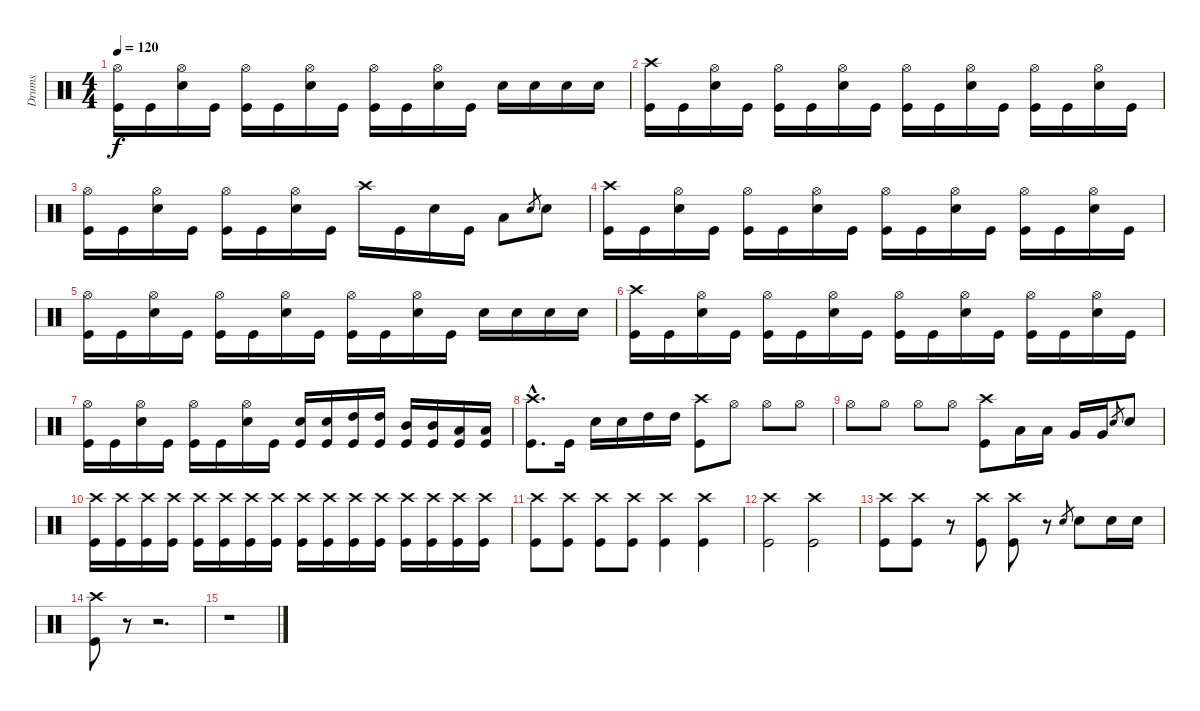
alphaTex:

\track ("Drums" "Drums") {instrument percussion}
\staff {score}
\articulation defaults
\ts (4 4)
\tempo 120
\clef neutral
\ks c
("Kick (hit)" "Hi-Hat (open)").16{dy f} "Kick (hit)".16 ("Electric Snare (hit)" "Hi-Hat (open)").16 "Kick (hit)".16 ("Kick (hit)" "Hi-Hat (open)").16 "Kick (hit)".16 ("Electric Snare (hit)" "Hi-Hat (open)").16 "Kick (hit)".16 ("Kick (hit)" "Hi-Hat (open)").16 "Kick (hit)".16 ("Electric Snare (hit)" "Hi-Hat (open)").16 "Kick (hit)".16 "Electric Snare (hit)".16 "Electric Snare (hit)".16 "Electric Snare (hit)".16 "Electric Snare (hit)".16 |
("Kick (hit)" "Crash high (hit)").16 "Kick (hit)".16 ("Electric Snare (hit)" "Hi-Hat (open)").16 "Kick (hit)".16 ("Kick (hit)" "Hi-Hat (open)").16 "Kick (hit)".16 ("Electric Snare (hit)" "Hi-Hat (open)").16 "Kick (hit)".16 ("Kick (hit)" "Hi-Hat (open)").16 "Kick (hit)".16 ("Electric Snare (hit)" "Hi-Hat (open)").16 "Kick (hit)".16 ("Kick (hit)" "Hi-Hat (open)").16 "Kick (hit)".16 ("Electric Snare (hit)" "Hi-Hat (open)").16 "Kick (hit)".16 |
("Kick (hit)" "Hi-Hat (open)").16 "Kick (hit)".16 ("Electric Snare (hit)" "Hi-Hat (open)").16 "Kick (hit)".16 ("Kick (hit)" "Hi-Hat (open)").16 "Kick (hit)".16 ("Electric Snare (hit)" "Hi-Hat (open)").16 "Kick (hit)".16 "Crash high (hit)".16 "Kick (hit)".16 "Electric Snare (hit)".16 "Kick (hit)".16 "Low Tom (hit)".8 "Electric Snare (hit)".8{gr} "Electric Snare (hit)".8 |
("Kick (hit)" "Crash high (hit)").16 "Kick (hit)".16 ("Electric Snare (hit)" "Hi-Hat (open)").16 "Kick (hit)".16 ("Kick (hit)" "Hi-Hat (open)").16 "Kick (hit)".16 ("Electric Snare (hit)" "Hi-Hat (open)").16 "Kick (hit)".16 ("Kick (hit)" "Hi-Hat (open)").16 "Kick (hit)".16 ("Electric Snare (hit)" "Hi-Hat (open)").16 "Kick (hit)".16 ("Kick (hit)" "Hi-Hat (open)").16 "Kick (hit)".16 ("Electric Snare (hit)" "Hi-Hat (open)").16 "Kick (hit)".16 |
("Kick (hit)" "Hi-Hat (open)").16 "Kick (hit)".16 ("Electric Snare (hit)" "Hi-Hat (open)").16 "Kick (hit)".16 ("Kick (hit)" "Hi-Hat (open)").16 "Kick (hit)".16 ("Electric Snare (hit)" "Hi-Hat (open)").16 "Kick (hit)".16 ("Kick (hit)" "Hi-Hat (open)").16 "Kick (hit)".16 ("Electric Snare (hit)" "Hi-Hat (open)").16 "Kick (hit)".16 "Electric Snare (hit)".16 "Electric Snare (hit)".16 "Electric Snare (hit)".16 "Electric Snare (hit)".16 |
("Kick (hit)" "Crash high (hit)").16 "Kick (hit)".16 ("Electric Snare (hit)" "Hi-Hat (open)").16 "Kick (hit)".16 ("Kick (hit)" "Hi-Hat (open)").16 "Kick (hit)".16 ("Electric Snare (hit)" "Hi-Hat (open)").16 "Kick (hit)".16 ("Kick (hit)" "Hi-Hat (open)").16 "Kick (hit)".16 ("Electric Snare (hit)" "Hi-Hat (open)").16 "Kick (hit)".16 ("Kick (hit)" "Hi-Hat (open)").16 "Kick (hit)".16 ("Electric Snare (hit)" "Hi-Hat (open)").16 "Kick (hit)".16 |
("Kick (hit)" "Hi-Hat (open)").16 "Kick (hit)".16 ("Electric Snare (hit)" "Hi-Hat (open)").16 "Kick (hit)".16 ("Kick (hit)" "Hi-Hat (open)").16 "Kick (hit)".16 ("Electric Snare (hit)" "Hi-Hat (open)").16 "Kick (hit)".16 ("Kick (hit)" "Electric Snare (hit)").16 ("Kick (hit)" "Electric Snare (hit)").16 ("Kick (hit)" "High Tom (hit)").16 ("Kick (hit)" "High Tom (hit)").16 ("Kick (hit)" "Mid Tom (hit)").16 ("Kick (hit)" "Mid Tom (hit)").16 ("Kick (hit)" "Low Tom (hit)").16 ("Kick (hit)" "Low Tom (hit)").16 |
("Kick (hit)"{hac} "Crash high (hit)"{hac}).8{d} "Kick (hit)".16 "Electric Snare (hit)".16 "Electric Snare (hit)".16 "High Tom (hit)".16 "High Tom (hit)".16 ("Kick (hit)" "Crash high (hit)").8 "Hi-Hat (open)".8 "Hi-Hat (open)".8 "Hi-Hat (open)".8 |
"Hi-Hat (open)".8 "Hi-Hat (open)".8 "Hi-Hat (open)".8 "Hi-Hat (open)".8 ("Kick (hit)" "Crash high (hit)").8 "Low Tom (hit)".16 "Low Tom (hit)".16 "Very Low Tom (hit)".16 "Very Low Tom (hit)".16 "Electric Snare (hit)".8{gr} "Electric Snare (hit)".8 |
("Kick (hit)" "Crash high (hit)").16 ("Kick (hit)" "Crash high (hit)").16 ("Kick (hit)" "Crash high (hit)").16 ("Kick (hit)" "Crash high (hit)").16 ("Kick (hit)" "Crash high (hit)").16 ("Kick (hit)" "Crash high (hit)").16 ("Kick (hit)" "Crash high (hit)").16 ("Kick (hit)" "Crash high (hit)").16 ("Kick (hit)" "Crash high (hit)").16 ("Kick (hit)" "Crash high (hit)").16 ("Kick (hit)" "Crash high (hit)").16 ("Kick (hit)" "Crash high (hit)").16 ("Kick (hit)" "Crash high (hit)").16 ("Kick (hit)" "Crash high (hit)").16 ("Kick (hit)" "Crash high (hit)").16 ("Kick (hit)" "Crash high (hit)").16 |
("Kick (hit)" "Crash high (hit)").8 ("Kick (hit)" "Crash high (hit)").8 ("Kick (hit)" "Crash high (hit)").8 ("Kick (hit)" "Crash high (hit)").8 ("Kick (hit)" "Crash high (hit)").4 ("Kick (hit)" "Crash high (hit)").4 |
("Kick (hit)" "Crash high (hit)").2 ("Kick (hit)" "Crash high (hit)").2 |
("Kick (hit)" "Crash high (hit)").8 ("Kick (hit)" "Crash high (hit)").8 r.8 ("Kick (hit)" "Crash high (hit)").8 ("Kick (hit)" "Crash high (hit)").8 r.8 "Electric Snare (hit)".8{gr} "Electric Snare (hit)".8 "Electric Snare (hit)".16 "Electric Snare (hit)".16 |
("Kick (hit)" "Crash high (hit)").8 r.8 r.2{d} |
r.1
